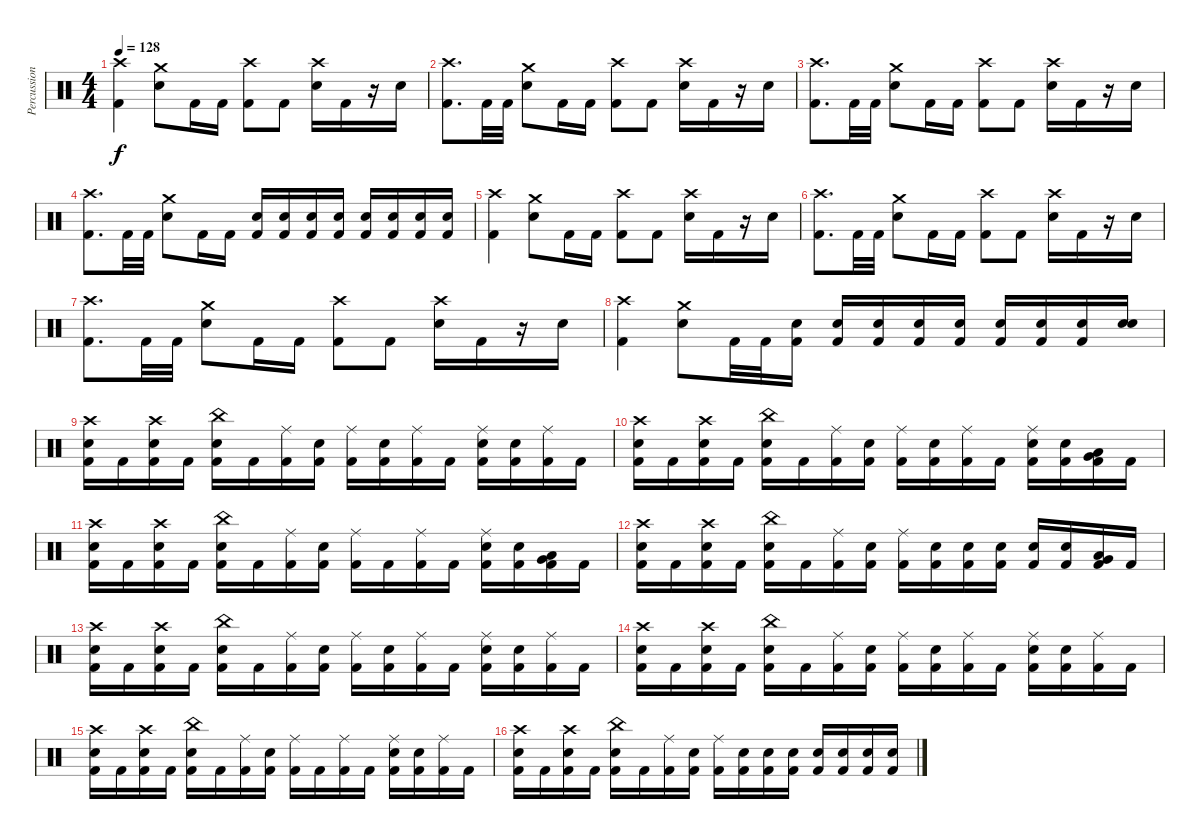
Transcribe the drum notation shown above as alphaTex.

\track ("Percussion" "Percussion") {instrument percussion}
\staff {score}
\articulation defaults
\ts (4 4)
\tempo 128
\clef neutral
\ks c
("Crash high (hit)" "Kick (hit) 2").4{dy f} ("Crash medium (hit)" "Snare (hit) 2").8 "Kick (hit) 2".16 "Kick (hit) 2".16 ("Crash high (hit)" "Kick (hit) 2").8 "Kick (hit) 2".8 ("Crash high (hit)" "Snare (hit) 2").16 "Kick (hit) 2".16 r.16 "Snare (hit) 2".16 |
("Crash high (hit)" "Kick (hit) 2").8{d} "Kick (hit) 2".32 "Kick (hit) 2".32 ("Crash medium (hit)" "Snare (hit) 2").8 "Kick (hit) 2".16 "Kick (hit) 2".16 ("Crash high (hit)" "Kick (hit) 2").8 "Kick (hit) 2".8 ("Crash high (hit)" "Snare (hit) 2").16 "Kick (hit) 2".16 r.16 "Snare (hit) 2".16 |
("Crash high (hit)" "Kick (hit) 2").8{d} "Kick (hit) 2".32 "Kick (hit) 2".32 ("Crash medium (hit)" "Snare (hit) 2").8 "Kick (hit) 2".16 "Kick (hit) 2".16 ("Crash high (hit)" "Kick (hit) 2").8 "Kick (hit) 2".8 ("Crash high (hit)" "Snare (hit) 2").16 "Kick (hit) 2".16 r.16 "Snare (hit) 2".16 |
("Crash high (hit)" "Kick (hit) 2").8{d} "Kick (hit) 2".32 "Kick (hit) 2".32 ("Crash medium (hit)" "Snare (hit) 2").8 "Kick (hit) 2".16 "Kick (hit) 2".16 ("Snare (hit) 2" "Kick (hit) 2").16 ("Snare (hit) 2" "Kick (hit) 2").16 ("Snare (hit) 2" "Kick (hit) 2").16 ("Snare (hit) 2" "Kick (hit) 2").16 ("Snare (hit) 2" "Kick (hit) 2").16 ("Snare (hit) 2" "Kick (hit) 2").16 ("Snare (hit) 2" "Kick (hit) 2").16 ("Snare (hit) 2" "Kick (hit) 2").16 |
("Crash high (hit)" "Kick (hit) 2").4 ("Crash medium (hit)" "Snare (hit) 2").8 "Kick (hit) 2".16 "Kick (hit) 2".16 ("Crash high (hit)" "Kick (hit) 2").8 "Kick (hit) 2".8 ("Crash high (hit)" "Snare (hit) 2").16 "Kick (hit) 2".16 r.16 "Snare (hit) 2".16 |
("Crash high (hit)" "Kick (hit) 2").8{d} "Kick (hit) 2".32 "Kick (hit) 2".32 ("Crash medium (hit)" "Snare (hit) 2").8 "Kick (hit) 2".16 "Kick (hit) 2".16 ("Crash high (hit)" "Kick (hit) 2").8 "Kick (hit) 2".8 ("Crash high (hit)" "Snare (hit) 2").16 "Kick (hit) 2".16 r.16 "Snare (hit) 2".16 |
("Crash high (hit)" "Kick (hit) 2").8{d} "Kick (hit) 2".32 "Kick (hit) 2".32 ("Crash medium (hit)" "Snare (hit) 2").8 "Kick (hit) 2".16 "Kick (hit) 2".16 ("Crash high (hit)" "Kick (hit) 2").8 "Kick (hit) 2".8 ("Crash high (hit)" "Snare (hit) 2").16 "Kick (hit) 2".16 r.16 "Snare (hit) 2".16 |
("Crash high (hit)" "Kick (hit) 2").4 ("Crash medium (hit)" "Snare (hit) 2").8 "Kick (hit) 2".32 "Kick (hit) 2".32 ("Snare (hit) 2" "Kick (hit) 2").16 ("Snare (hit) 2" "Kick (hit) 2").16 ("Snare (hit) 2" "Kick (hit) 2").16 ("Snare (hit) 2" "Kick (hit) 2").16 ("Snare (hit) 2" "Kick (hit) 2").16 ("Snare (hit) 2" "Kick (hit) 2").16 ("Snare (hit) 2" "Kick (hit) 2").16 ("Snare (hit) 2" "Kick (hit) 2").16 ("Snare (hit) 2" "Snare (hit) 2").16 |
("Crash high (hit)" "Snare (hit) 2" "Kick (hit) 2").16 "Kick (hit) 2".16 ("Crash high (hit)" "Snare (hit) 2" "Kick (hit) 2").16 "Kick (hit) 2".16 ("China (hit)" "Snare (hit) 2" "Kick (hit) 2").16 "Kick (hit) 2".16 ("Ride (middle)" "Kick (hit) 2").16 ("Snare (hit) 2" "Kick (hit) 2").16 ("Ride (middle)" "Kick (hit) 2").16 ("Snare (hit) 2" "Kick (hit) 2").16 ("Ride (middle)" "Kick (hit) 2").16 "Kick (hit) 2".16 ("Ride (middle)" "Snare (hit) 2" "Kick (hit) 2").16 ("Snare (hit) 2" "Kick (hit) 2").16 ("Ride (middle)" "Kick (hit) 2").16 "Kick (hit) 2".16 |
("Crash high (hit)" "Snare (hit) 2" "Kick (hit) 2").16 "Kick (hit) 2".16 ("Crash high (hit)" "Snare (hit) 2" "Kick (hit) 2").16 "Kick (hit) 2".16 ("China (hit)" "Snare (hit) 2" "Kick (hit) 2").16 "Kick (hit) 2".16 ("Ride (middle)" "Kick (hit) 2").16 ("Snare (hit) 2" "Kick (hit) 2").16 ("Ride (middle)" "Kick (hit) 2").16 ("Snare (hit) 2" "Kick (hit) 2").16 ("Ride (middle)" "Kick (hit) 2").16 "Kick (hit) 2".16 ("Ride (middle)" "Snare (hit) 2" "Kick (hit) 2").16 ("Snare (hit) 2" "Kick (hit) 2").16 ("Very Low Tom (hit)" "Low Tom (hit)" "Kick (hit) 2").16 "Kick (hit) 2".16 |
("Crash high (hit)" "Snare (hit) 2" "Kick (hit) 2").16 "Kick (hit) 2".16 ("Crash high (hit)" "Snare (hit) 2" "Kick (hit) 2").16 "Kick (hit) 2".16 ("China (hit)" "Snare (hit) 2" "Kick (hit) 2").16 "Kick (hit) 2".16 ("Ride (middle)" "Kick (hit) 2").16 ("Snare (hit) 2" "Kick (hit) 2").16 ("Ride (middle)" "Kick (hit) 2").16 "Kick (hit) 2".16 ("Ride (middle)" "Kick (hit) 2").16 "Kick (hit) 2".16 ("Ride (middle)" "Snare (hit) 2" "Kick (hit) 2").16 ("Snare (hit) 2" "Kick (hit) 2").16 ("Very Low Tom (hit)" "Low Tom (hit)" "Kick (hit) 2").16 "Kick (hit) 2".16 |
("Crash high (hit)" "Snare (hit) 2" "Kick (hit) 2").16 "Kick (hit) 2".16 ("Crash high (hit)" "Snare (hit) 2" "Kick (hit) 2").16 "Kick (hit) 2".16 ("China (hit)" "Snare (hit) 2" "Kick (hit) 2").16 "Kick (hit) 2".16 ("Ride (middle)" "Kick (hit) 2").16 ("Snare (hit) 2" "Kick (hit) 2").16 ("Ride (middle)" "Kick (hit) 2").16 ("Snare (hit) 2" "Kick (hit) 2").16 ("Snare (hit) 2" "Kick (hit) 2").16 ("Snare (hit) 2" "Kick (hit) 2").16 ("Snare (hit) 2" "Kick (hit) 2").16 ("Snare (hit) 2" "Kick (hit) 2").16 ("Very Low Tom (hit)" "Low Tom (hit)" "Kick (hit) 2").16 "Kick (hit) 2".16 |
("Crash high (hit)" "Snare (hit) 2" "Kick (hit) 2").16 "Kick (hit) 2".16 ("Crash high (hit)" "Snare (hit) 2" "Kick (hit) 2").16 "Kick (hit) 2".16 ("China (hit)" "Snare (hit) 2" "Kick (hit) 2").16 "Kick (hit) 2".16 ("Ride (middle)" "Kick (hit) 2").16 ("Snare (hit) 2" "Kick (hit) 2").16 ("Ride (middle)" "Kick (hit) 2").16 ("Snare (hit) 2" "Kick (hit) 2").16 ("Ride (middle)" "Kick (hit) 2").16 "Kick (hit) 2".16 ("Ride (middle)" "Snare (hit) 2" "Kick (hit) 2").16 ("Snare (hit) 2" "Kick (hit) 2").16 ("Ride (middle)" "Kick (hit) 2").16 "Kick (hit) 2".16 |
("Crash high (hit)" "Snare (hit) 2" "Kick (hit) 2").16 "Kick (hit) 2".16 ("Crash high (hit)" "Snare (hit) 2" "Kick (hit) 2").16 "Kick (hit) 2".16 ("China (hit)" "Snare (hit) 2" "Kick (hit) 2").16 "Kick (hit) 2".16 ("Ride (middle)" "Kick (hit) 2").16 ("Snare (hit) 2" "Kick (hit) 2").16 ("Ride (middle)" "Kick (hit) 2").16 ("Snare (hit) 2" "Kick (hit) 2").16 ("Ride (middle)" "Kick (hit) 2").16 "Kick (hit) 2".16 ("Ride (middle)" "Snare (hit) 2" "Kick (hit) 2").16 ("Snare (hit) 2" "Kick (hit) 2").16 ("Ride (middle)" "Kick (hit) 2").16 "Kick (hit) 2".16 |
("Crash high (hit)" "Snare (hit) 2" "Kick (hit) 2").16 "Kick (hit) 2".16 ("Crash high (hit)" "Snare (hit) 2" "Kick (hit) 2").16 "Kick (hit) 2".16 ("China (hit)" "Snare (hit) 2" "Kick (hit) 2").16 "Kick (hit) 2".16 ("Ride (middle)" "Kick (hit) 2").16 ("Snare (hit) 2" "Kick (hit) 2").16 ("Ride (middle)" "Kick (hit) 2").16 "Kick (hit) 2".16 ("Ride (middle)" "Kick (hit) 2").16 "Kick (hit) 2".16 ("Ride (middle)" "Snare (hit) 2" "Kick (hit) 2").16 ("Snare (hit) 2" "Kick (hit) 2").16 ("Ride (middle)" "Kick (hit) 2").16 "Kick (hit) 2".16 |
("Crash high (hit)" "Snare (hit) 2" "Kick (hit) 2").16 "Kick (hit) 2".16 ("Crash high (hit)" "Snare (hit) 2" "Kick (hit) 2").16 "Kick (hit) 2".16 ("China (hit)" "Snare (hit) 2" "Kick (hit) 2").16 "Kick (hit) 2".16 ("Ride (middle)" "Kick (hit) 2").16 ("Snare (hit) 2" "Kick (hit) 2").16 ("Ride (middle)" "Kick (hit) 2").16 ("Snare (hit) 2" "Kick (hit) 2").16 ("Snare (hit) 2" "Kick (hit) 2").16 ("Snare (hit) 2" "Kick (hit) 2").16 ("Snare (hit) 2" "Kick (hit) 2").16 ("Snare (hit) 2" "Kick (hit) 2").16 ("Snare (hit) 2" "Kick (hit) 2").16 ("Snare (hit) 2" "Kick (hit) 2").16
